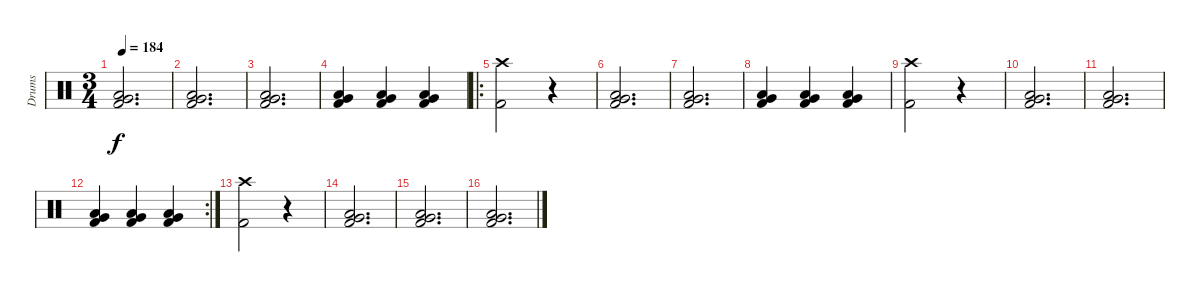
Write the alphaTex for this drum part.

\track ("Drums" "Drums") {instrument percussion}
\staff {score}
\articulation defaults
\ts (3 4)
\tempo 184
\clef neutral
\ks c
("Low Floor Tom (hit)" "Very Low Tom (hit)" "Kick (hit) 2").2{d dy f} |
("Low Floor Tom (hit)" "Very Low Tom (hit)" "Kick (hit) 2").2{d} |
("Low Floor Tom (hit)" "Very Low Tom (hit)" "Kick (hit) 2").2{d} |
("Low Floor Tom (hit)" "Very Low Tom (hit)" "Kick (hit) 2").4 ("Low Floor Tom (hit)" "Very Low Tom (hit)" "Kick (hit) 2").4 ("Low Floor Tom (hit)" "Very Low Tom (hit)" "Kick (hit) 2").4 |
\ro
("Crash high (hit)" "Kick (hit) 2").2 r.4 |
("Low Floor Tom (hit)" "Very Low Tom (hit)" "Kick (hit) 2").2{d} |
("Low Floor Tom (hit)" "Very Low Tom (hit)" "Kick (hit) 2").2{d} |
("Low Floor Tom (hit)" "Very Low Tom (hit)" "Kick (hit) 2").4 ("Low Floor Tom (hit)" "Very Low Tom (hit)" "Kick (hit) 2").4 ("Low Floor Tom (hit)" "Very Low Tom (hit)" "Kick (hit) 2").4 |
("Crash high (hit)" "Kick (hit) 2").2 r.4 |
("Low Floor Tom (hit)" "Very Low Tom (hit)" "Kick (hit) 2").2{d} |
("Low Floor Tom (hit)" "Very Low Tom (hit)" "Kick (hit) 2").2{d} |
\rc 2
("Low Floor Tom (hit)" "Very Low Tom (hit)" "Kick (hit) 2").4 ("Low Floor Tom (hit)" "Very Low Tom (hit)" "Kick (hit) 2").4 ("Low Floor Tom (hit)" "Very Low Tom (hit)" "Kick (hit) 2").4 |
("Crash high (hit)" "Kick (hit) 2").2 r.4 |
("Low Floor Tom (hit)" "Very Low Tom (hit)" "Kick (hit) 2").2{d} |
("Low Floor Tom (hit)" "Very Low Tom (hit)" "Kick (hit) 2").2{d} |
("Low Floor Tom (hit)" "Very Low Tom (hit)" "Kick (hit) 2").2{d}
